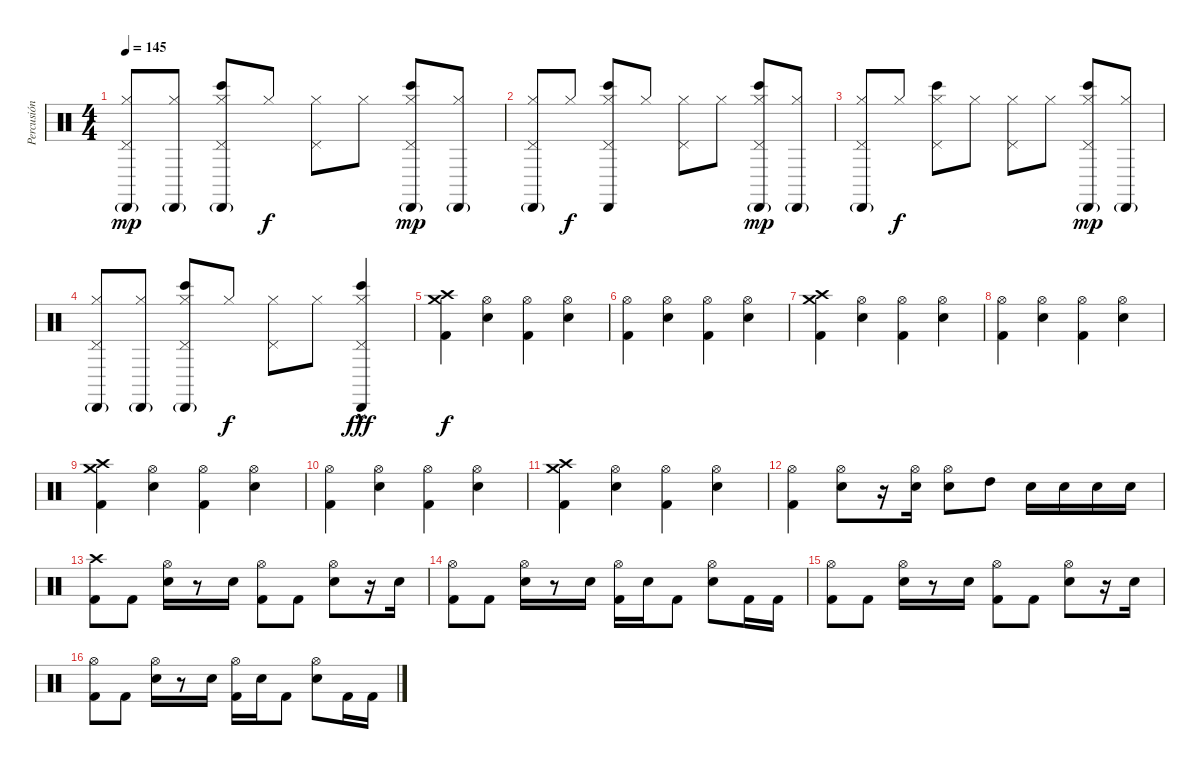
\track ("Percusión" "Percusión") {instrument percussion}
\staff {score}
\articulation defaults
\ts (4 4)
\tempo 145
\clef neutral
\ks c
("Cabasa (hit)"{g} "Hi-Hat (closed)" "Pedal Hi-Hat (hit)").8{dy mp} ("Cabasa (hit)"{g} "Hi-Hat (closed)").8 ("Cabasa (hit)"{g} "Hi-Hat (closed)" "Bongo High (hit)" "Pedal Hi-Hat (hit)").8 "Hi-Hat (closed)".8{dy f} ("Hi-Hat (closed)" "Pedal Hi-Hat (hit)").8 "Hi-Hat (closed)".8 ("Cabasa (hit)"{g} "Hi-Hat (closed)" "Bongo High (hit)" "Pedal Hi-Hat (hit)").8{dy mp} ("Cabasa (hit)"{g} "Hi-Hat (closed)").8 |
("Cabasa (hit)"{g} "Hi-Hat (closed)" "Pedal Hi-Hat (hit)").8 "Hi-Hat (closed)".8{dy f} ("Cabasa (hit)" "Hi-Hat (closed)" "Bongo High (hit)" "Pedal Hi-Hat (hit)").8 "Hi-Hat (closed)".8 ("Hi-Hat (closed)" "Pedal Hi-Hat (hit)").8 "Hi-Hat (closed)".8 ("Cabasa (hit)"{g} "Hi-Hat (closed)" "Bongo High (hit)" "Pedal Hi-Hat (hit)").8{dy mp} ("Cabasa (hit)"{g} "Hi-Hat (closed)").8 |
("Cabasa (hit)"{g} "Hi-Hat (closed)" "Pedal Hi-Hat (hit)").8 "Hi-Hat (closed)".8{dy f} ("Hi-Hat (closed)" "Bongo High (hit)" "Pedal Hi-Hat (hit)").8 "Hi-Hat (closed)".8 ("Hi-Hat (closed)" "Pedal Hi-Hat (hit)").8 "Hi-Hat (closed)".8 ("Cabasa (hit)"{g} "Hi-Hat (closed)" "Bongo High (hit)" "Pedal Hi-Hat (hit)").8{dy mp} ("Cabasa (hit)"{g} "Hi-Hat (closed)").8 |
("Cabasa (hit)"{g} "Hi-Hat (closed)" "Pedal Hi-Hat (hit)").8 ("Cabasa (hit)"{g} "Hi-Hat (closed)").8 ("Cabasa (hit)"{g} "Hi-Hat (closed)" "Bongo High (hit)" "Pedal Hi-Hat (hit)").8 "Hi-Hat (closed)".8{dy f} ("Hi-Hat (closed)" "Pedal Hi-Hat (hit)").8 "Hi-Hat (closed)".8 ("Cabasa (hit)" "Hi-Hat (closed)" "Bongo High (hit)"{hac} "Pedal Hi-Hat (hit)").4{dy fff} |
("Crash medium (hit)" "Crash high (hit)" "Kick (hit) 2").4{dy f} ("Hi-Hat (open)" "Electric Snare (hit)").4 ("Hi-Hat (open)" "Kick (hit) 2").4 ("Hi-Hat (open)" "Electric Snare (hit)").4 |
("Hi-Hat (open)" "Kick (hit) 2").4 ("Hi-Hat (open)" "Electric Snare (hit)").4 ("Hi-Hat (open)" "Kick (hit) 2").4 ("Hi-Hat (open)" "Electric Snare (hit)").4 |
("Crash medium (hit)" "Crash high (hit)" "Kick (hit) 2").4 ("Hi-Hat (open)" "Electric Snare (hit)").4 ("Hi-Hat (open)" "Kick (hit) 2").4 ("Hi-Hat (open)" "Electric Snare (hit)").4 |
("Hi-Hat (open)" "Kick (hit) 2").4 ("Hi-Hat (open)" "Electric Snare (hit)").4 ("Hi-Hat (open)" "Kick (hit) 2").4 ("Hi-Hat (open)" "Electric Snare (hit)").4 |
("Crash medium (hit)" "Crash high (hit)" "Kick (hit) 2").4 ("Hi-Hat (open)" "Electric Snare (hit)").4 ("Hi-Hat (open)" "Kick (hit) 2").4 ("Hi-Hat (open)" "Electric Snare (hit)").4 |
("Hi-Hat (open)" "Kick (hit) 2").4 ("Hi-Hat (open)" "Electric Snare (hit)").4 ("Hi-Hat (open)" "Kick (hit) 2").4 ("Hi-Hat (open)" "Electric Snare (hit)").4 |
("Crash medium (hit)" "Crash high (hit)" "Kick (hit) 2").4 ("Hi-Hat (open)" "Electric Snare (hit)").4 ("Hi-Hat (open)" "Kick (hit) 2").4 ("Hi-Hat (open)" "Electric Snare (hit)").4 |
("Hi-Hat (open)" "Kick (hit) 2").4 ("Hi-Hat (open)" "Electric Snare (hit)").8 r.16 ("Hi-Hat (open)" "Electric Snare (hit)").16 ("Hi-Hat (open)" "Electric Snare (hit)").8 "High Tom (hit)".8 "Electric Snare (hit)".16 "Electric Snare (hit)".16 "Electric Snare (hit)".16 "Electric Snare (hit)".16 |
("Crash high (hit)" "Kick (hit) 2").8 "Kick (hit) 2".8 ("Hi-Hat (open)" "Electric Snare (hit)").16 r.8 "Electric Snare (hit)".16 ("Hi-Hat (open)" "Kick (hit) 2").8 "Kick (hit) 2".8 ("Hi-Hat (open)" "Electric Snare (hit)").8 r.16 "Electric Snare (hit)".16 |
("Hi-Hat (open)" "Kick (hit) 2").8 "Kick (hit) 2".8 ("Hi-Hat (open)" "Electric Snare (hit)").16 r.8 "Electric Snare (hit)".16 ("Hi-Hat (open)" "Kick (hit) 2").16 "Electric Snare (hit)".16 "Kick (hit) 2".8 ("Hi-Hat (open)" "Electric Snare (hit)").8 "Kick (hit) 2".16 "Kick (hit) 2".16 |
("Hi-Hat (open)" "Kick (hit) 2").8 "Kick (hit) 2".8 ("Hi-Hat (open)" "Electric Snare (hit)").16 r.8 "Electric Snare (hit)".16 ("Hi-Hat (open)" "Kick (hit) 2").8 "Kick (hit) 2".8 ("Hi-Hat (open)" "Electric Snare (hit)").8 r.16 "Electric Snare (hit)".16 |
("Hi-Hat (open)" "Kick (hit) 2").8 "Kick (hit) 2".8 ("Hi-Hat (open)" "Electric Snare (hit)").16 r.8 "Electric Snare (hit)".16 ("Hi-Hat (open)" "Kick (hit) 2").16 "Electric Snare (hit)".16 "Kick (hit) 2".8 ("Hi-Hat (open)" "Electric Snare (hit)").8 "Kick (hit) 2".16 "Kick (hit) 2".16
